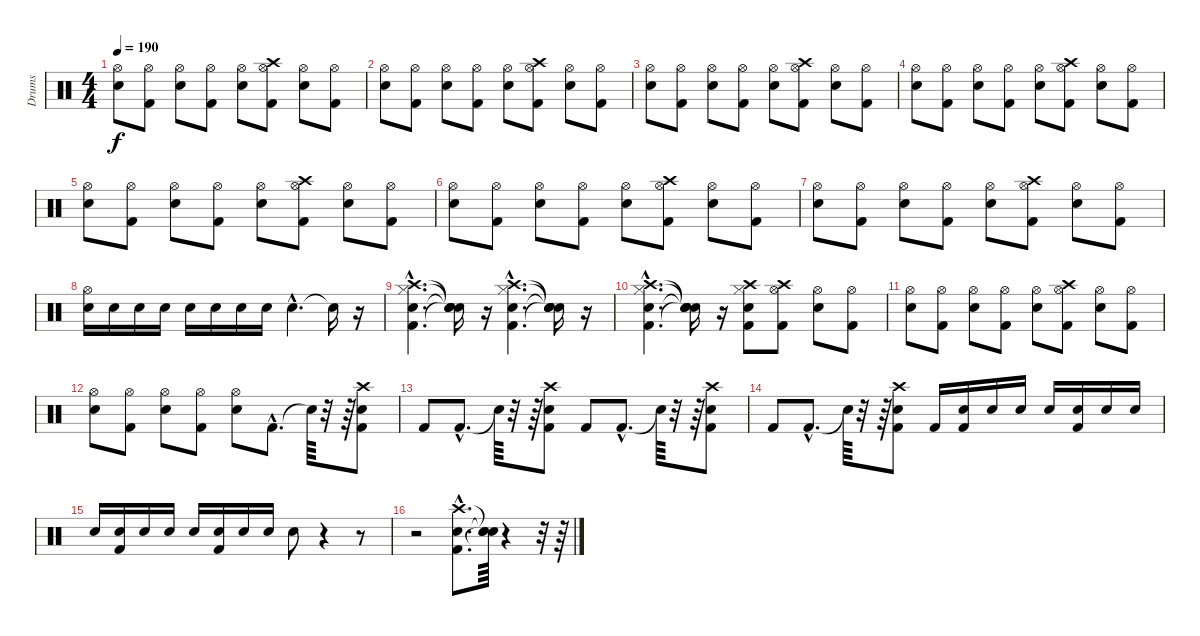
\track ("Drums" "Drums") {instrument percussion}
\staff {score}
\articulation defaults
\ts (4 4)
\tempo 190
\clef neutral
\ks c
("Snare (hit) 2" "Hi-Hat (open)").8{dy f} ("Kick (hit) 2" "Hi-Hat (open)").8 ("Snare (hit) 2" "Hi-Hat (open)").8 ("Kick (hit) 2" "Hi-Hat (open)").8 ("Snare (hit) 2" "Hi-Hat (open)").8 ("Kick (hit) 2" "Hi-Hat (open)" "Crash high (hit)").8 ("Snare (hit) 2" "Hi-Hat (open)").8 ("Kick (hit) 2" "Hi-Hat (open)").8 |
("Snare (hit) 2" "Hi-Hat (open)").8 ("Kick (hit) 2" "Hi-Hat (open)").8 ("Snare (hit) 2" "Hi-Hat (open)").8 ("Kick (hit) 2" "Hi-Hat (open)").8 ("Snare (hit) 2" "Hi-Hat (open)").8 ("Kick (hit) 2" "Hi-Hat (open)" "Crash high (hit)").8 ("Snare (hit) 2" "Hi-Hat (open)").8 ("Kick (hit) 2" "Hi-Hat (open)").8 |
("Snare (hit) 2" "Hi-Hat (open)").8 ("Kick (hit) 2" "Hi-Hat (open)").8 ("Snare (hit) 2" "Hi-Hat (open)").8 ("Kick (hit) 2" "Hi-Hat (open)").8 ("Snare (hit) 2" "Hi-Hat (open)").8 ("Kick (hit) 2" "Hi-Hat (open)" "Crash high (hit)").8 ("Snare (hit) 2" "Hi-Hat (open)").8 ("Kick (hit) 2" "Hi-Hat (open)").8 |
("Snare (hit) 2" "Hi-Hat (open)").8 ("Kick (hit) 2" "Hi-Hat (open)").8 ("Snare (hit) 2" "Hi-Hat (open)").8 ("Kick (hit) 2" "Hi-Hat (open)").8 ("Snare (hit) 2" "Hi-Hat (open)").8 ("Kick (hit) 2" "Hi-Hat (open)" "Crash high (hit)").8 ("Snare (hit) 2" "Hi-Hat (open)").8 ("Kick (hit) 2" "Hi-Hat (open)").8 |
("Snare (hit) 2" "Hi-Hat (open)").8 ("Kick (hit) 2" "Hi-Hat (open)").8 ("Snare (hit) 2" "Hi-Hat (open)").8 ("Kick (hit) 2" "Hi-Hat (open)").8 ("Snare (hit) 2" "Hi-Hat (open)").8 ("Kick (hit) 2" "Hi-Hat (open)" "Crash high (hit)").8 ("Snare (hit) 2" "Hi-Hat (open)").8 ("Kick (hit) 2" "Hi-Hat (open)").8 |
("Snare (hit) 2" "Hi-Hat (open)").8 ("Kick (hit) 2" "Hi-Hat (open)").8 ("Snare (hit) 2" "Hi-Hat (open)").8 ("Kick (hit) 2" "Hi-Hat (open)").8 ("Snare (hit) 2" "Hi-Hat (open)").8 ("Kick (hit) 2" "Hi-Hat (open)" "Crash high (hit)").8 ("Snare (hit) 2" "Hi-Hat (open)").8 ("Kick (hit) 2" "Hi-Hat (open)").8 |
("Snare (hit) 2" "Hi-Hat (open)").8 ("Kick (hit) 2" "Hi-Hat (open)").8 ("Snare (hit) 2" "Hi-Hat (open)").8 ("Kick (hit) 2" "Hi-Hat (open)").8 ("Snare (hit) 2" "Hi-Hat (open)").8 ("Kick (hit) 2" "Hi-Hat (open)" "Crash high (hit)").8 ("Snare (hit) 2" "Hi-Hat (open)").8 ("Kick (hit) 2" "Hi-Hat (open)").8 |
("Snare (hit) 2" "Hi-Hat (open)").16 "Snare (hit) 2".16 "Snare (hit) 2".16 "Snare (hit) 2".16 "Snare (hit) 2".16 "Snare (hit) 2".16 "Snare (hit) 2".16 "Snare (hit) 2".16 "Snare (hit) 2"{hac}.4{d} "Snare (hit)"{t}.16 r.16 |
("Kick (hit) 2"{hac} "Snare (hit) 2"{hac} "Hi-Hat (closed)"{hac} "Crash high (hit)"{hac}).4{d} ("Snare (hit)"{t} "Snare (hit)"{t} "Snare (hit)"{t} "Snare (hit)"{t}).16 r.16 ("Kick (hit) 2"{hac} "Snare (hit) 2"{hac} "Hi-Hat (closed)"{hac} "Crash high (hit)"{hac}).4{d} ("Snare (hit)"{t} "Snare (hit)"{t} "Snare (hit)"{t} "Snare (hit)"{t}).16 r.16 |
("Kick (hit) 2"{hac} "Snare (hit) 2"{hac} "Hi-Hat (closed)"{hac} "Crash high (hit)"{hac}).4{d} ("Snare (hit)"{t} "Snare (hit)"{t} "Snare (hit)"{t} "Snare (hit)"{t}).16 r.16 ("Kick (hit) 2" "Snare (hit) 2" "Hi-Hat (closed)" "Crash high (hit)").8 ("Kick (hit) 2" "Hi-Hat (open)" "Crash high (hit)").8 ("Snare (hit) 2" "Hi-Hat (open)").8 ("Kick (hit) 2" "Hi-Hat (open)").8 |
("Snare (hit) 2" "Hi-Hat (open)").8 ("Kick (hit) 2" "Hi-Hat (open)").8 ("Snare (hit) 2" "Hi-Hat (open)").8 ("Kick (hit) 2" "Hi-Hat (open)").8 ("Snare (hit) 2" "Hi-Hat (open)").8 ("Kick (hit) 2" "Hi-Hat (open)" "Crash high (hit)").8 ("Snare (hit) 2" "Hi-Hat (open)").8 ("Kick (hit) 2" "Hi-Hat (open)").8 |
("Snare (hit) 2" "Hi-Hat (open)").8 ("Kick (hit) 2" "Hi-Hat (open)").8 ("Snare (hit) 2" "Hi-Hat (open)").8 ("Kick (hit) 2" "Hi-Hat (open)").8 ("Snare (hit) 2" "Hi-Hat (open)").8 "Kick (hit) 2"{hac}.8{d} "Snare (hit)"{t}.64 r.32 r.64 ("Kick (hit) 2" "Snare (hit) 2" "Crash high (hit)").8 |
"Kick (hit) 2".8 "Kick (hit) 2"{hac}.8{d} "Snare (hit)"{t}.64 r.32 r.64 ("Kick (hit) 2" "Snare (hit) 2" "Crash high (hit)").8 "Kick (hit) 2".8 "Kick (hit) 2"{hac}.8{d} "Snare (hit)"{t}.64 r.32 r.64 ("Kick (hit) 2" "Snare (hit) 2" "Crash high (hit)").8 |
"Kick (hit) 2".8 "Kick (hit) 2"{hac}.8{d} "Snare (hit)"{t}.64 r.32 r.64 ("Kick (hit) 2" "Snare (hit) 2" "Crash high (hit)").8 "Kick (hit) 2".16 ("Kick (hit) 2" "Snare (hit) 2").16 "Snare (hit) 2".16 "Snare (hit) 2".16 "Snare (hit) 2".16 ("Kick (hit) 2" "Snare (hit) 2").16 "Snare (hit) 2".16 "Snare (hit) 2".16 |
"Snare (hit) 2".16 ("Kick (hit) 2" "Snare (hit) 2").16 "Snare (hit) 2".16 "Snare (hit) 2".16 "Snare (hit) 2".16 ("Kick (hit) 2" "Snare (hit) 2").16 "Snare (hit) 2".16 "Snare (hit) 2".16 "Snare (hit) 2".8 r.4 r.8 |
r.2 ("Kick (hit) 2"{hac} "Snare (hit) 2"{hac} "Crash high (hit)"{hac}).8{d} ("Snare (hit)"{t} "Snare (hit)"{t} "Snare (hit)"{t}).64 r.4 r.32 r.64
